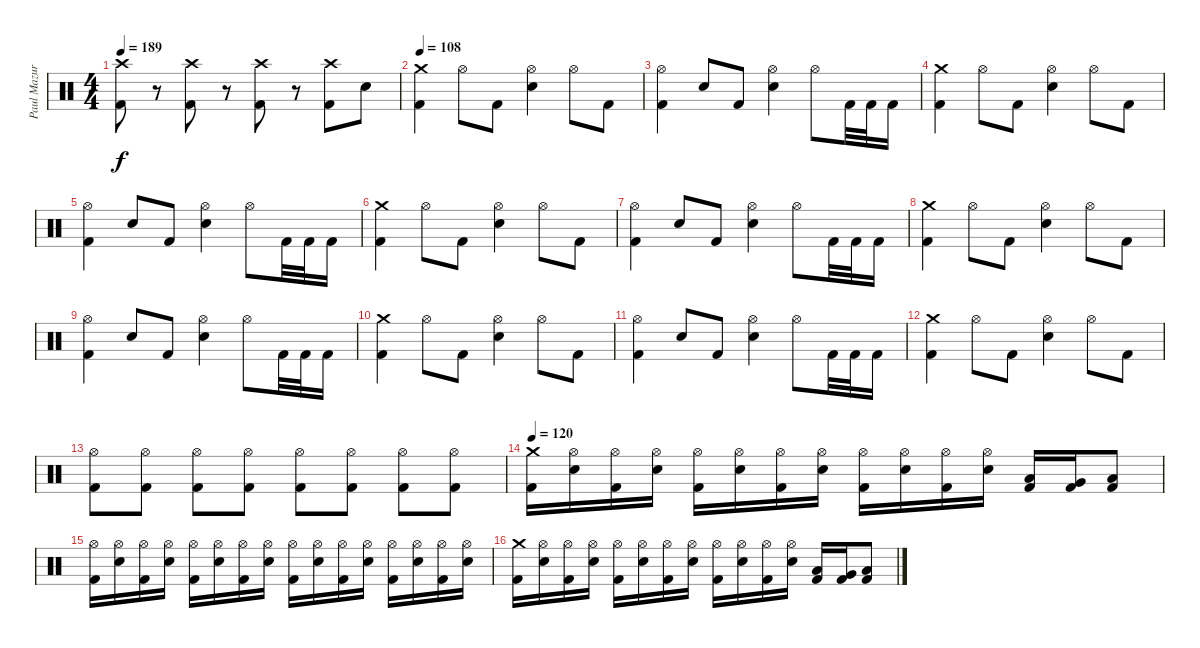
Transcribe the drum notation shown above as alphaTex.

\track ("Paul Mazurkevitch" "Paul Mazur") {instrument percussion}
\staff {score}
\articulation defaults
\ts (4 4)
\tempo 189
\clef neutral
\ks c
("Crash high (hit)" "Kick (hit) 2").8{dy f} r.8{volume 0} ("Crash high (hit)" "Kick (hit) 2").8{volume 16} r.8{volume 0} ("Crash high (hit)" "Kick (hit) 2").8{volume 16} r.8{volume 0} ("Crash high (hit)" "Kick (hit) 2").8{volume 16} "Electric Snare (hit)".8 |
\tempo 108
("Crash medium (hit)" "Kick (hit) 2").4 "Hi-Hat (open)".8 "Kick (hit) 2".8 ("Hi-Hat (open)" "Electric Snare (hit)").4 "Hi-Hat (open)".8 "Kick (hit) 2".8 |
("Hi-Hat (open)" "Kick (hit) 2").4 "Electric Snare (hit)".8 "Kick (hit) 2".8 ("Hi-Hat (open)" "Electric Snare (hit)").4 "Hi-Hat (open)".8 "Kick (hit) 2".32 "Kick (hit) 2".32 "Kick (hit) 2".16 |
("Crash medium (hit)" "Kick (hit) 2").4 "Hi-Hat (open)".8 "Kick (hit) 2".8 ("Hi-Hat (open)" "Electric Snare (hit)").4 "Hi-Hat (open)".8 "Kick (hit) 2".8 |
("Hi-Hat (open)" "Kick (hit) 2").4 "Electric Snare (hit)".8 "Kick (hit) 2".8 ("Hi-Hat (open)" "Electric Snare (hit)").4 "Hi-Hat (open)".8 "Kick (hit) 2".32 "Kick (hit) 2".32 "Kick (hit) 2".16 |
("Crash medium (hit)" "Kick (hit) 2").4 "Hi-Hat (open)".8 "Kick (hit) 2".8 ("Hi-Hat (open)" "Electric Snare (hit)").4 "Hi-Hat (open)".8 "Kick (hit) 2".8 |
("Hi-Hat (open)" "Kick (hit) 2").4 "Electric Snare (hit)".8 "Kick (hit) 2".8 ("Hi-Hat (open)" "Electric Snare (hit)").4 "Hi-Hat (open)".8 "Kick (hit) 2".32 "Kick (hit) 2".32 "Kick (hit) 2".16 |
("Crash medium (hit)" "Kick (hit) 2").4 "Hi-Hat (open)".8 "Kick (hit) 2".8 ("Hi-Hat (open)" "Electric Snare (hit)").4 "Hi-Hat (open)".8 "Kick (hit) 2".8 |
("Hi-Hat (open)" "Kick (hit) 2").4 "Electric Snare (hit)".8 "Kick (hit) 2".8 ("Hi-Hat (open)" "Electric Snare (hit)").4 "Hi-Hat (open)".8 "Kick (hit) 2".32 "Kick (hit) 2".32 "Kick (hit) 2".16 |
("Crash medium (hit)" "Kick (hit) 2").4 "Hi-Hat (open)".8 "Kick (hit) 2".8 ("Hi-Hat (open)" "Electric Snare (hit)").4 "Hi-Hat (open)".8 "Kick (hit) 2".8 |
("Hi-Hat (open)" "Kick (hit) 2").4 "Electric Snare (hit)".8 "Kick (hit) 2".8 ("Hi-Hat (open)" "Electric Snare (hit)").4 "Hi-Hat (open)".8 "Kick (hit) 2".32 "Kick (hit) 2".32 "Kick (hit) 2".16 |
("Crash medium (hit)" "Kick (hit) 2").4 "Hi-Hat (open)".8 "Kick (hit) 2".8 ("Hi-Hat (open)" "Electric Snare (hit)").4 "Hi-Hat (open)".8 "Kick (hit) 2".8 |
("Hi-Hat (open)" "Kick (hit) 2").8 ("Hi-Hat (open)" "Kick (hit) 2").8 ("Hi-Hat (open)" "Kick (hit) 2").8 ("Hi-Hat (open)" "Kick (hit) 2").8 ("Hi-Hat (open)" "Kick (hit) 2").8 ("Hi-Hat (open)" "Kick (hit) 2").8 ("Hi-Hat (open)" "Kick (hit) 2").8 ("Hi-Hat (open)" "Kick (hit) 2").8 |
\tempo 120
("Crash medium (hit)" "Kick (hit) 2").16 ("Hi-Hat (open)" "Electric Snare (hit)").16 ("Hi-Hat (open)" "Kick (hit) 2").16 ("Hi-Hat (open)" "Electric Snare (hit)").16 ("Hi-Hat (open)" "Kick (hit) 2").16 ("Hi-Hat (open)" "Electric Snare (hit)").16 ("Hi-Hat (open)" "Kick (hit) 2").16 ("Hi-Hat (open)" "Electric Snare (hit)").16 ("Hi-Hat (open)" "Kick (hit) 2").16 ("Hi-Hat (open)" "Electric Snare (hit)").16 ("Hi-Hat (open)" "Kick (hit) 2").16 ("Hi-Hat (open)" "Electric Snare (hit)").16 ("Low Tom (hit)" "Kick (hit) 2").16 ("Very Low Tom (hit)" "Kick (hit) 2").16 ("Low Floor Tom (hit)" "Kick (hit) 2").8 |
("Hi-Hat (open)" "Kick (hit) 2").16 ("Hi-Hat (open)" "Electric Snare (hit)").16 ("Hi-Hat (open)" "Kick (hit) 2").16 ("Hi-Hat (open)" "Electric Snare (hit)").16 ("Hi-Hat (open)" "Kick (hit) 2").16 ("Hi-Hat (open)" "Electric Snare (hit)").16 ("Hi-Hat (open)" "Kick (hit) 2").16 ("Hi-Hat (open)" "Electric Snare (hit)").16 ("Hi-Hat (open)" "Kick (hit) 2").16 ("Hi-Hat (open)" "Electric Snare (hit)").16 ("Hi-Hat (open)" "Kick (hit) 2").16 ("Hi-Hat (open)" "Electric Snare (hit)").16 ("Hi-Hat (open)" "Kick (hit) 2").16 ("Hi-Hat (open)" "Electric Snare (hit)").16 ("Hi-Hat (open)" "Kick (hit) 2").16 ("Hi-Hat (open)" "Electric Snare (hit)").16 |
("Crash medium (hit)" "Kick (hit) 2").16 ("Hi-Hat (open)" "Electric Snare (hit)").16 ("Hi-Hat (open)" "Kick (hit) 2").16 ("Hi-Hat (open)" "Electric Snare (hit)").16 ("Hi-Hat (open)" "Kick (hit) 2").16 ("Hi-Hat (open)" "Electric Snare (hit)").16 ("Hi-Hat (open)" "Kick (hit) 2").16 ("Hi-Hat (open)" "Electric Snare (hit)").16 ("Hi-Hat (open)" "Kick (hit) 2").16 ("Hi-Hat (open)" "Electric Snare (hit)").16 ("Hi-Hat (open)" "Kick (hit) 2").16 ("Hi-Hat (open)" "Electric Snare (hit)").16 ("Low Tom (hit)" "Kick (hit) 2").16 ("Very Low Tom (hit)" "Kick (hit) 2").16 ("Low Floor Tom (hit)" "Kick (hit) 2").8
